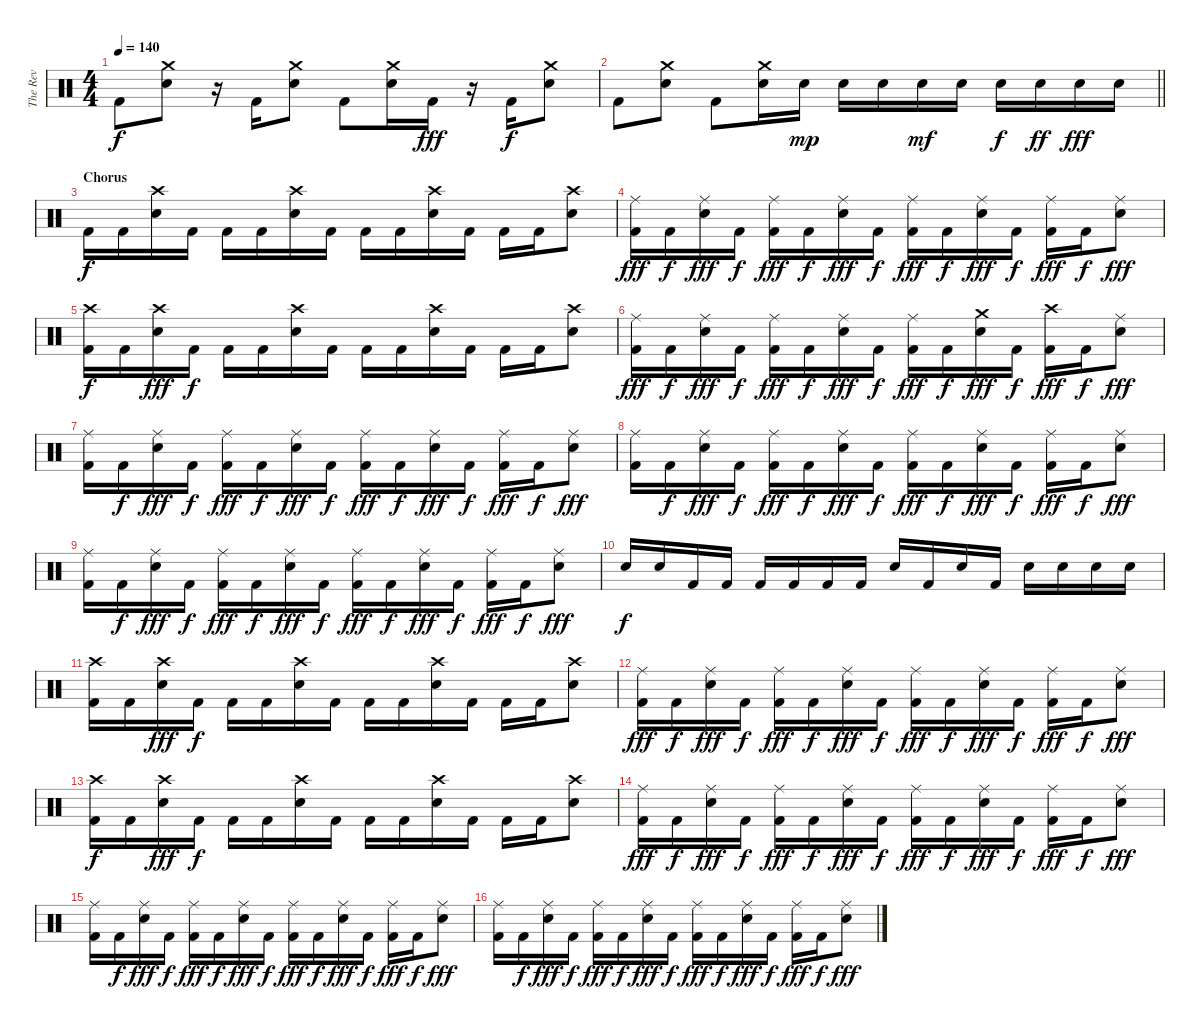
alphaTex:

\track ("The Rev" "The Rev") {instrument percussion}
\staff {score}
\articulation defaults
\ts (4 4)
\tempo 140
\clef neutral
\ks c "Kick (hit) 2".8{dy f}
("Crash medium (hit)" "Snare (hit) 2").8 r.16 "Kick (hit) 2".16 ("Crash medium (hit)" "Snare (hit) 2").8 "Kick (hit) 2".8 ("Crash medium (hit)" "Snare (hit) 2").16 "Kick (hit) 2".16{dy fff} r.16 "Kick (hit) 2".16{dy f} ("Crash medium (hit)" "Snare (hit) 2").8 |
\barLineRight lightlight "Kick (hit) 2".8
("Crash medium (hit)" "Snare (hit) 2").8 "Kick (hit) 2".8 ("Crash medium (hit)" "Snare (hit) 2").16 "Snare (hit) 2".16{dy mp} "Snare (hit) 2".16 "Snare (hit) 2".16 "Snare (hit) 2".16{dy mf} "Snare (hit) 2".16 "Snare (hit) 2".16{dy f} "Snare (hit) 2".16{dy ff} "Snare (hit) 2".16{dy fff} "Snare (hit) 2".16 |
\section ("" "Chorus")
"Kick (hit) 2".16{dy f} "Kick (hit) 2".16 ("Crash high (hit)" "Snare (hit) 2").16 "Kick (hit) 2".16 "Kick (hit) 2".16 "Kick (hit) 2".16 ("Crash high (hit)" "Snare (hit) 2").16 "Kick (hit) 2".16 "Kick (hit) 2".16 "Kick (hit) 2".16 ("Crash high (hit)" "Snare (hit) 2").16 "Kick (hit) 2".16 "Kick (hit) 2".16 "Kick (hit) 2".16 ("Crash high (hit)" "Snare (hit) 2").8 |
("Ride (middle)" "Kick (hit) 2").16{dy fff} "Kick (hit) 2".16{dy f} ("Ride (middle)" "Snare (hit) 2").16{dy fff} "Kick (hit) 2".16{dy f} ("Ride (middle)" "Kick (hit) 2").16{dy fff} "Kick (hit) 2".16{dy f} ("Ride (middle)" "Snare (hit) 2").16{dy fff} "Kick (hit) 2".16{dy f} ("Ride (middle)" "Kick (hit) 2").16{dy fff} "Kick (hit) 2".16{dy f} ("Ride (middle)" "Snare (hit) 2").16{dy fff} "Kick (hit) 2".16{dy f} ("Ride (middle)" "Kick (hit) 2").16{dy fff} "Kick (hit) 2".16{dy f} ("Ride (middle)" "Snare (hit) 2").8{dy fff} |
("Crash high (hit)" "Kick (hit) 2").16{dy f} "Kick (hit) 2".16 ("Crash high (hit)" "Snare (hit) 2").16{dy fff} "Kick (hit) 2".16{dy f} "Kick (hit) 2".16 "Kick (hit) 2".16 ("Crash high (hit)" "Snare (hit) 2").16 "Kick (hit) 2".16 "Kick (hit) 2".16 "Kick (hit) 2".16 ("Crash high (hit)" "Snare (hit) 2").16 "Kick (hit) 2".16 "Kick (hit) 2".16 "Kick (hit) 2".16 ("Crash high (hit)" "Snare (hit) 2").8 |
("Ride (middle)" "Kick (hit) 2").16{dy fff} "Kick (hit) 2".16{dy f} ("Ride (middle)" "Snare (hit) 2").16{dy fff} "Kick (hit) 2".16{dy f} ("Ride (middle)" "Kick (hit) 2").16{dy fff} "Kick (hit) 2".16{dy f} ("Ride (middle)" "Snare (hit) 2").16{dy fff} "Kick (hit) 2".16{dy f} ("Ride (middle)" "Kick (hit) 2").16{dy fff} "Kick (hit) 2".16{dy f} ("Crash medium (hit)" "Snare (hit) 2").16{dy fff} "Kick (hit) 2".16{dy f} ("Crash high (hit)" "Kick (hit) 2").16{dy fff} "Kick (hit) 2".16{dy f} ("Ride (middle)" "Snare (hit) 2").8{dy fff} |
("Ride (middle)" "Kick (hit) 2").16 "Kick (hit) 2".16{dy f} ("Ride (middle)" "Snare (hit) 2").16{dy fff} "Kick (hit) 2".16{dy f} ("Ride (middle)" "Kick (hit) 2").16{dy fff} "Kick (hit) 2".16{dy f} ("Ride (middle)" "Snare (hit) 2").16{dy fff} "Kick (hit) 2".16{dy f} ("Ride (middle)" "Kick (hit) 2").16{dy fff} "Kick (hit) 2".16{dy f} ("Ride (middle)" "Snare (hit) 2").16{dy fff} "Kick (hit) 2".16{dy f} ("Ride (middle)" "Kick (hit) 2").16{dy fff} "Kick (hit) 2".16{dy f} ("Ride (middle)" "Snare (hit) 2").8{dy fff} |
("Ride (middle)" "Kick (hit) 2").16 "Kick (hit) 2".16{dy f} ("Ride (middle)" "Snare (hit) 2").16{dy fff} "Kick (hit) 2".16{dy f} ("Ride (middle)" "Kick (hit) 2").16{dy fff} "Kick (hit) 2".16{dy f} ("Ride (middle)" "Snare (hit) 2").16{dy fff} "Kick (hit) 2".16{dy f} ("Ride (middle)" "Kick (hit) 2").16{dy fff} "Kick (hit) 2".16{dy f} ("Ride (middle)" "Snare (hit) 2").16{dy fff} "Kick (hit) 2".16{dy f} ("Ride (middle)" "Kick (hit) 2").16{dy fff} "Kick (hit) 2".16{dy f} ("Ride (middle)" "Snare (hit) 2").8{dy fff} |
("Ride (middle)" "Kick (hit) 2").16 "Kick (hit) 2".16{dy f} ("Ride (middle)" "Snare (hit) 2").16{dy fff} "Kick (hit) 2".16{dy f} ("Ride (middle)" "Kick (hit) 2").16{dy fff} "Kick (hit) 2".16{dy f} ("Ride (middle)" "Snare (hit) 2").16{dy fff} "Kick (hit) 2".16{dy f} ("Ride (middle)" "Kick (hit) 2").16{dy fff} "Kick (hit) 2".16{dy f} ("Ride (middle)" "Snare (hit) 2").16{dy fff} "Kick (hit) 2".16{dy f} ("Ride (middle)" "Kick (hit) 2").16{dy fff} "Kick (hit) 2".16{dy f} ("Ride (middle)" "Snare (hit) 2").8{dy fff} |
"Snare (hit) 2".16{dy f} "Snare (hit) 2".16 "Kick (hit) 2".16 "Kick (hit) 2".16 "Kick (hit) 2".16 "Kick (hit) 2".16 "Kick (hit) 2".16 "Kick (hit) 2".16 "Snare (hit) 2".16 "Kick (hit) 2".16 "Snare (hit) 2".16 "Kick (hit) 2".16 "Snare (hit) 2".16 "Snare (hit) 2".16 "Snare (hit) 2".16 "Snare (hit) 2".16 |
("Crash high (hit)" "Kick (hit) 2").16 "Kick (hit) 2".16 ("Crash high (hit)" "Snare (hit) 2").16{dy fff} "Kick (hit) 2".16{dy f} "Kick (hit) 2".16 "Kick (hit) 2".16 ("Crash high (hit)" "Snare (hit) 2").16 "Kick (hit) 2".16 "Kick (hit) 2".16 "Kick (hit) 2".16 ("Crash high (hit)" "Snare (hit) 2").16 "Kick (hit) 2".16 "Kick (hit) 2".16 "Kick (hit) 2".16 ("Crash high (hit)" "Snare (hit) 2").8 |
("Ride (middle)" "Kick (hit) 2").16{dy fff} "Kick (hit) 2".16{dy f} ("Ride (middle)" "Snare (hit) 2").16{dy fff} "Kick (hit) 2".16{dy f} ("Ride (middle)" "Kick (hit) 2").16{dy fff} "Kick (hit) 2".16{dy f} ("Ride (middle)" "Snare (hit) 2").16{dy fff} "Kick (hit) 2".16{dy f} ("Ride (middle)" "Kick (hit) 2").16{dy fff} "Kick (hit) 2".16{dy f} ("Ride (middle)" "Snare (hit) 2").16{dy fff} "Kick (hit) 2".16{dy f} ("Ride (middle)" "Kick (hit) 2").16{dy fff} "Kick (hit) 2".16{dy f} ("Ride (middle)" "Snare (hit) 2").8{dy fff} |
("Crash high (hit)" "Kick (hit) 2").16{dy f} "Kick (hit) 2".16 ("Crash high (hit)" "Snare (hit) 2").16{dy fff} "Kick (hit) 2".16{dy f} "Kick (hit) 2".16 "Kick (hit) 2".16 ("Crash high (hit)" "Snare (hit) 2").16 "Kick (hit) 2".16 "Kick (hit) 2".16 "Kick (hit) 2".16 ("Crash high (hit)" "Snare (hit) 2").16 "Kick (hit) 2".16 "Kick (hit) 2".16 "Kick (hit) 2".16 ("Crash high (hit)" "Snare (hit) 2").8 |
("Ride (middle)" "Kick (hit) 2").16{dy fff} "Kick (hit) 2".16{dy f} ("Ride (middle)" "Snare (hit) 2").16{dy fff} "Kick (hit) 2".16{dy f} ("Ride (middle)" "Kick (hit) 2").16{dy fff} "Kick (hit) 2".16{dy f} ("Ride (middle)" "Snare (hit) 2").16{dy fff} "Kick (hit) 2".16{dy f} ("Ride (middle)" "Kick (hit) 2").16{dy fff} "Kick (hit) 2".16{dy f} ("Ride (middle)" "Snare (hit) 2").16{dy fff} "Kick (hit) 2".16{dy f} ("Ride (middle)" "Kick (hit) 2").16{dy fff} "Kick (hit) 2".16{dy f} ("Ride (middle)" "Snare (hit) 2").8{dy fff} |
("Ride (middle)" "Kick (hit) 2").16 "Kick (hit) 2".16{dy f} ("Ride (middle)" "Snare (hit) 2").16{dy fff} "Kick (hit) 2".16{dy f} ("Ride (middle)" "Kick (hit) 2").16{dy fff} "Kick (hit) 2".16{dy f} ("Ride (middle)" "Snare (hit) 2").16{dy fff} "Kick (hit) 2".16{dy f} ("Ride (middle)" "Kick (hit) 2").16{dy fff} "Kick (hit) 2".16{dy f} ("Ride (middle)" "Snare (hit) 2").16{dy fff} "Kick (hit) 2".16{dy f} ("Ride (middle)" "Kick (hit) 2").16{dy fff} "Kick (hit) 2".16{dy f} ("Ride (middle)" "Snare (hit) 2").8{dy fff} |
("Ride (middle)" "Kick (hit) 2").16 "Kick (hit) 2".16{dy f} ("Ride (middle)" "Snare (hit) 2").16{dy fff} "Kick (hit) 2".16{dy f} ("Ride (middle)" "Kick (hit) 2").16{dy fff} "Kick (hit) 2".16{dy f} ("Ride (middle)" "Snare (hit) 2").16{dy fff} "Kick (hit) 2".16{dy f} ("Ride (middle)" "Kick (hit) 2").16{dy fff} "Kick (hit) 2".16{dy f} ("Ride (middle)" "Snare (hit) 2").16{dy fff} "Kick (hit) 2".16{dy f} ("Ride (middle)" "Kick (hit) 2").16{dy fff} "Kick (hit) 2".16{dy f} ("Ride (middle)" "Snare (hit) 2").8{dy fff}
